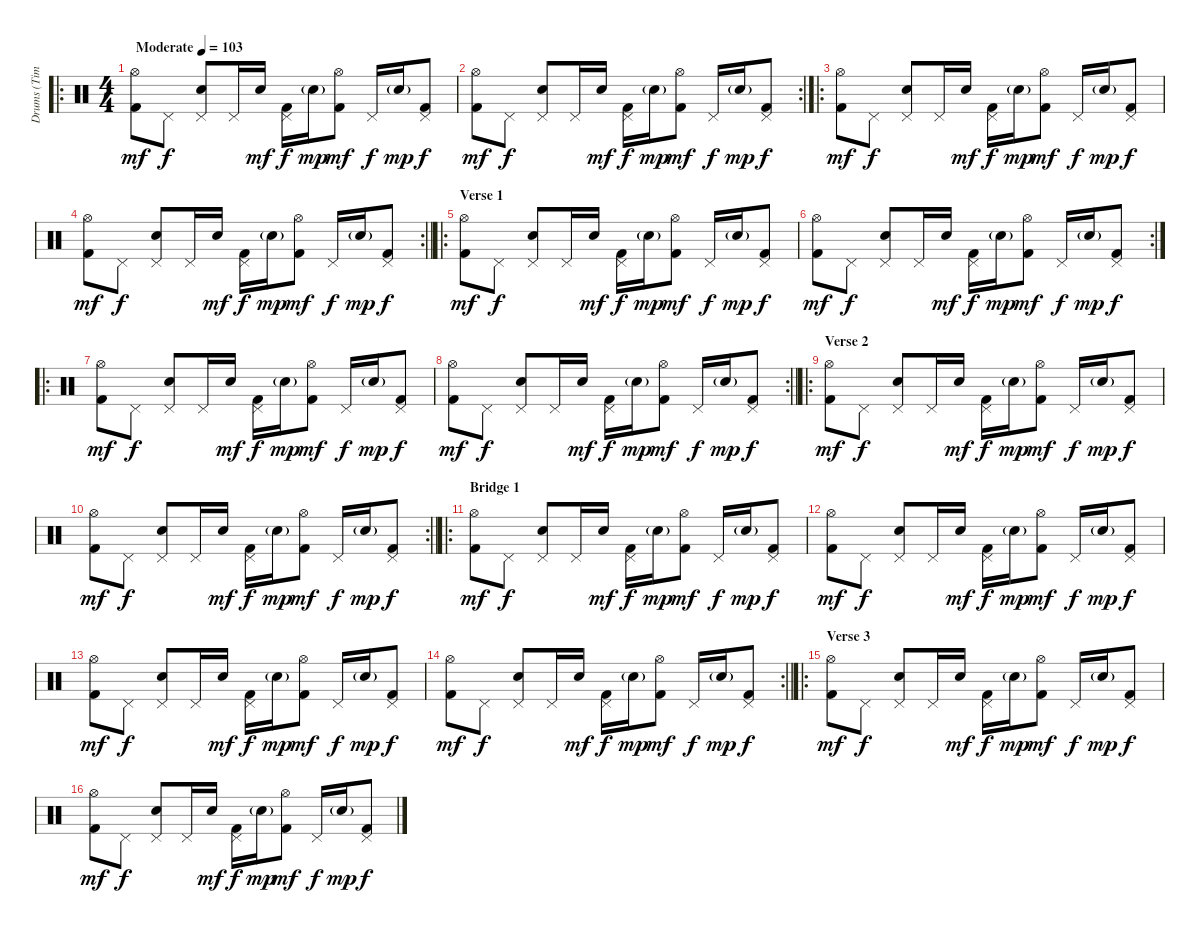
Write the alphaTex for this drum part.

\track ("Drums (Tim Alexander)" "Drums (Tim") {instrument percussion}
\staff {score}
\articulation defaults
\ro
\ts (4 4)
\tempo (103 "Moderate")
\clef neutral
\ks c
("Hi-Hat (open)" "Kick (hit) 2").8{dy mf} "Pedal Hi-Hat (hit)".8{dy f} ("Pedal Hi-Hat (hit)" "Electric Snare (hit)").8 "Pedal Hi-Hat (hit)".16 "Electric Snare (hit)".16{dy mf} ("Pedal Hi-Hat (hit)" "Kick (hit) 2").16{dy f} "Electric Snare (hit)"{g}.16{dy mp} ("Hi-Hat (open)" "Kick (hit) 2").8{dy mf} "Pedal Hi-Hat (hit)".16{dy f} "Electric Snare (hit)"{g}.16{dy mp} ("Pedal Hi-Hat (hit)" "Kick (hit) 2").8{dy f} |
\rc 2
("Hi-Hat (open)" "Kick (hit) 2").8{dy mf} "Pedal Hi-Hat (hit)".8{dy f} ("Pedal Hi-Hat (hit)" "Electric Snare (hit)").8 "Pedal Hi-Hat (hit)".16 "Electric Snare (hit)".16{dy mf} ("Pedal Hi-Hat (hit)" "Kick (hit) 2").16{dy f} "Electric Snare (hit)"{g}.16{dy mp} ("Hi-Hat (open)" "Kick (hit) 2").8{dy mf} "Pedal Hi-Hat (hit)".16{dy f} "Electric Snare (hit)"{g}.16{dy mp} ("Pedal Hi-Hat (hit)" "Kick (hit) 2").8{dy f} |
\ro
("Hi-Hat (open)" "Kick (hit) 2").8{dy mf} "Pedal Hi-Hat (hit)".8{dy f} ("Pedal Hi-Hat (hit)" "Electric Snare (hit)").8 "Pedal Hi-Hat (hit)".16 "Electric Snare (hit)".16{dy mf} ("Pedal Hi-Hat (hit)" "Kick (hit) 2").16{dy f} "Electric Snare (hit)"{g}.16{dy mp} ("Hi-Hat (open)" "Kick (hit) 2").8{dy mf} "Pedal Hi-Hat (hit)".16{dy f} "Electric Snare (hit)"{g}.16{dy mp} ("Pedal Hi-Hat (hit)" "Kick (hit) 2").8{dy f} |
\rc 2
\barLineRight lightlight
("Hi-Hat (open)" "Kick (hit) 2").8{dy mf} "Pedal Hi-Hat (hit)".8{dy f} ("Pedal Hi-Hat (hit)" "Electric Snare (hit)").8 "Pedal Hi-Hat (hit)".16 "Electric Snare (hit)".16{dy mf} ("Pedal Hi-Hat (hit)" "Kick (hit) 2").16{dy f} "Electric Snare (hit)"{g}.16{dy mp} ("Hi-Hat (open)" "Kick (hit) 2").8{dy mf} "Pedal Hi-Hat (hit)".16{dy f} "Electric Snare (hit)"{g}.16{dy mp} ("Pedal Hi-Hat (hit)" "Kick (hit) 2").8{dy f} |
\ro
\section ("" "Verse 1")
("Hi-Hat (open)" "Kick (hit) 2").8{dy mf} "Pedal Hi-Hat (hit)".8{dy f} ("Pedal Hi-Hat (hit)" "Electric Snare (hit)").8 "Pedal Hi-Hat (hit)".16 "Electric Snare (hit)".16{dy mf} ("Pedal Hi-Hat (hit)" "Kick (hit) 2").16{dy f} "Electric Snare (hit)"{g}.16{dy mp} ("Hi-Hat (open)" "Kick (hit) 2").8{dy mf} "Pedal Hi-Hat (hit)".16{dy f} "Electric Snare (hit)"{g}.16{dy mp} ("Pedal Hi-Hat (hit)" "Kick (hit) 2").8{dy f} |
\rc 2
("Hi-Hat (open)" "Kick (hit) 2").8{dy mf} "Pedal Hi-Hat (hit)".8{dy f} ("Pedal Hi-Hat (hit)" "Electric Snare (hit)").8 "Pedal Hi-Hat (hit)".16 "Electric Snare (hit)".16{dy mf} ("Pedal Hi-Hat (hit)" "Kick (hit) 2").16{dy f} "Electric Snare (hit)"{g}.16{dy mp} ("Hi-Hat (open)" "Kick (hit) 2").8{dy mf} "Pedal Hi-Hat (hit)".16{dy f} "Electric Snare (hit)"{g}.16{dy mp} ("Pedal Hi-Hat (hit)" "Kick (hit) 2").8{dy f} |
\ro
("Hi-Hat (open)" "Kick (hit) 2").8{dy mf} "Pedal Hi-Hat (hit)".8{dy f} ("Pedal Hi-Hat (hit)" "Electric Snare (hit)").8 "Pedal Hi-Hat (hit)".16 "Electric Snare (hit)".16{dy mf} ("Pedal Hi-Hat (hit)" "Kick (hit) 2").16{dy f} "Electric Snare (hit)"{g}.16{dy mp} ("Hi-Hat (open)" "Kick (hit) 2").8{dy mf} "Pedal Hi-Hat (hit)".16{dy f} "Electric Snare (hit)"{g}.16{dy mp} ("Pedal Hi-Hat (hit)" "Kick (hit) 2").8{dy f} |
\rc 2
\barLineRight lightlight
("Hi-Hat (open)" "Kick (hit) 2").8{dy mf} "Pedal Hi-Hat (hit)".8{dy f} ("Pedal Hi-Hat (hit)" "Electric Snare (hit)").8 "Pedal Hi-Hat (hit)".16 "Electric Snare (hit)".16{dy mf} ("Pedal Hi-Hat (hit)" "Kick (hit) 2").16{dy f} "Electric Snare (hit)"{g}.16{dy mp} ("Hi-Hat (open)" "Kick (hit) 2").8{dy mf} "Pedal Hi-Hat (hit)".16{dy f} "Electric Snare (hit)"{g}.16{dy mp} ("Pedal Hi-Hat (hit)" "Kick (hit) 2").8{dy f} |
\ro
\section ("" "Verse 2")
("Hi-Hat (open)" "Kick (hit) 2").8{dy mf} "Pedal Hi-Hat (hit)".8{dy f} ("Pedal Hi-Hat (hit)" "Electric Snare (hit)").8 "Pedal Hi-Hat (hit)".16 "Electric Snare (hit)".16{dy mf} ("Pedal Hi-Hat (hit)" "Kick (hit) 2").16{dy f} "Electric Snare (hit)"{g}.16{dy mp} ("Hi-Hat (open)" "Kick (hit) 2").8{dy mf} "Pedal Hi-Hat (hit)".16{dy f} "Electric Snare (hit)"{g}.16{dy mp} ("Pedal Hi-Hat (hit)" "Kick (hit) 2").8{dy f} |
\rc 2
\barLineRight lightlight
("Hi-Hat (open)" "Kick (hit) 2").8{dy mf} "Pedal Hi-Hat (hit)".8{dy f} ("Pedal Hi-Hat (hit)" "Electric Snare (hit)").8 "Pedal Hi-Hat (hit)".16 "Electric Snare (hit)".16{dy mf} ("Pedal Hi-Hat (hit)" "Kick (hit) 2").16{dy f} "Electric Snare (hit)"{g}.16{dy mp} ("Hi-Hat (open)" "Kick (hit) 2").8{dy mf} "Pedal Hi-Hat (hit)".16{dy f} "Electric Snare (hit)"{g}.16{dy mp} ("Pedal Hi-Hat (hit)" "Kick (hit) 2").8{dy f} |
\ro
\section ("" "Bridge 1")
("Hi-Hat (open)" "Kick (hit) 2").8{dy mf} "Pedal Hi-Hat (hit)".8{dy f} ("Pedal Hi-Hat (hit)" "Electric Snare (hit)").8 "Pedal Hi-Hat (hit)".16 "Electric Snare (hit)".16{dy mf} ("Pedal Hi-Hat (hit)" "Kick (hit) 2").16{dy f} "Electric Snare (hit)"{g}.16{dy mp} ("Hi-Hat (open)" "Kick (hit) 2").8{dy mf} "Pedal Hi-Hat (hit)".16{dy f} "Electric Snare (hit)"{g}.16{dy mp} ("Pedal Hi-Hat (hit)" "Kick (hit) 2").8{dy f} |
("Hi-Hat (open)" "Kick (hit) 2").8{dy mf} "Pedal Hi-Hat (hit)".8{dy f} ("Pedal Hi-Hat (hit)" "Electric Snare (hit)").8 "Pedal Hi-Hat (hit)".16 "Electric Snare (hit)".16{dy mf} ("Pedal Hi-Hat (hit)" "Kick (hit) 2").16{dy f} "Electric Snare (hit)"{g}.16{dy mp} ("Hi-Hat (open)" "Kick (hit) 2").8{dy mf} "Pedal Hi-Hat (hit)".16{dy f} "Electric Snare (hit)"{g}.16{dy mp} ("Pedal Hi-Hat (hit)" "Kick (hit) 2").8{dy f} |
("Hi-Hat (open)" "Kick (hit) 2").8{dy mf} "Pedal Hi-Hat (hit)".8{dy f} ("Pedal Hi-Hat (hit)" "Electric Snare (hit)").8 "Pedal Hi-Hat (hit)".16 "Electric Snare (hit)".16{dy mf} ("Pedal Hi-Hat (hit)" "Kick (hit) 2").16{dy f} "Electric Snare (hit)"{g}.16{dy mp} ("Hi-Hat (open)" "Kick (hit) 2").8{dy mf} "Pedal Hi-Hat (hit)".16{dy f} "Electric Snare (hit)"{g}.16{dy mp} ("Pedal Hi-Hat (hit)" "Kick (hit) 2").8{dy f} |
\rc 2
\barLineRight lightlight
("Hi-Hat (open)" "Kick (hit) 2").8{dy mf} "Pedal Hi-Hat (hit)".8{dy f} ("Pedal Hi-Hat (hit)" "Electric Snare (hit)").8 "Pedal Hi-Hat (hit)".16 "Electric Snare (hit)".16{dy mf} ("Pedal Hi-Hat (hit)" "Kick (hit) 2").16{dy f} "Electric Snare (hit)"{g}.16{dy mp} ("Hi-Hat (open)" "Kick (hit) 2").8{dy mf} "Pedal Hi-Hat (hit)".16{dy f} "Electric Snare (hit)"{g}.16{dy mp} ("Pedal Hi-Hat (hit)" "Kick (hit) 2").8{dy f} |
\ro
\section ("" "Verse 3")
("Hi-Hat (open)" "Kick (hit) 2").8{dy mf} "Pedal Hi-Hat (hit)".8{dy f} ("Pedal Hi-Hat (hit)" "Electric Snare (hit)").8 "Pedal Hi-Hat (hit)".16 "Electric Snare (hit)".16{dy mf} ("Pedal Hi-Hat (hit)" "Kick (hit) 2").16{dy f} "Electric Snare (hit)"{g}.16{dy mp} ("Hi-Hat (open)" "Kick (hit) 2").8{dy mf} "Pedal Hi-Hat (hit)".16{dy f} "Electric Snare (hit)"{g}.16{dy mp} ("Pedal Hi-Hat (hit)" "Kick (hit) 2").8{dy f} |
("Hi-Hat (open)" "Kick (hit) 2").8{dy mf} "Pedal Hi-Hat (hit)".8{dy f} ("Pedal Hi-Hat (hit)" "Electric Snare (hit)").8 "Pedal Hi-Hat (hit)".16 "Electric Snare (hit)".16{dy mf} ("Pedal Hi-Hat (hit)" "Kick (hit) 2").16{dy f} "Electric Snare (hit)"{g}.16{dy mp} ("Hi-Hat (open)" "Kick (hit) 2").8{dy mf} "Pedal Hi-Hat (hit)".16{dy f} "Electric Snare (hit)"{g}.16{dy mp} ("Pedal Hi-Hat (hit)" "Kick (hit) 2").8{dy f}
